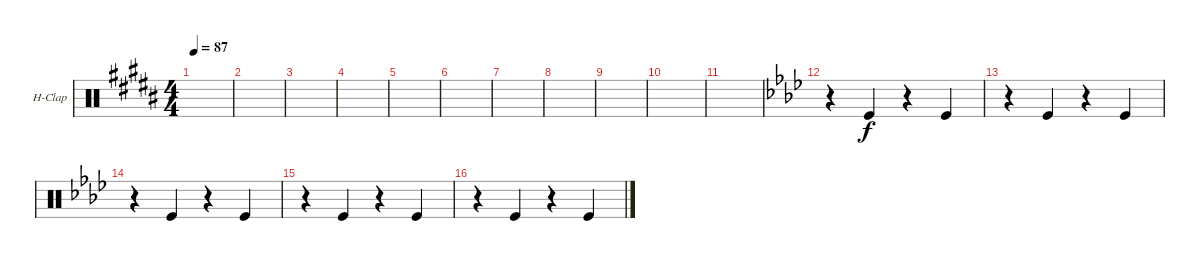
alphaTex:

\defaultSystemsLayout 4
\bracketExtendMode groupsimilarinstruments
\firstSystemTrackNameOrientation horizontal
\otherSystemsTrackNameOrientation horizontal
\track ("Hand Clap" "H-Clap") {instrument percussion}
\staff {score}
\articulation defaults
\ts (4 4)
\tempo 87
\clef neutral
\ks b
|
|
|
|
|
|
|
|
|
|
|
\ks ab
r.4 "Kick (hit)".4 r.4 "Kick (hit)".4 |
r.4 "Kick (hit)".4 r.4 "Kick (hit)".4 |
r.4 "Kick (hit)".4 r.4 "Kick (hit)".4 |
r.4 "Kick (hit)".4 r.4 "Kick (hit)".4 |
r.4 "Kick (hit)".4 r.4 "Kick (hit)".4
